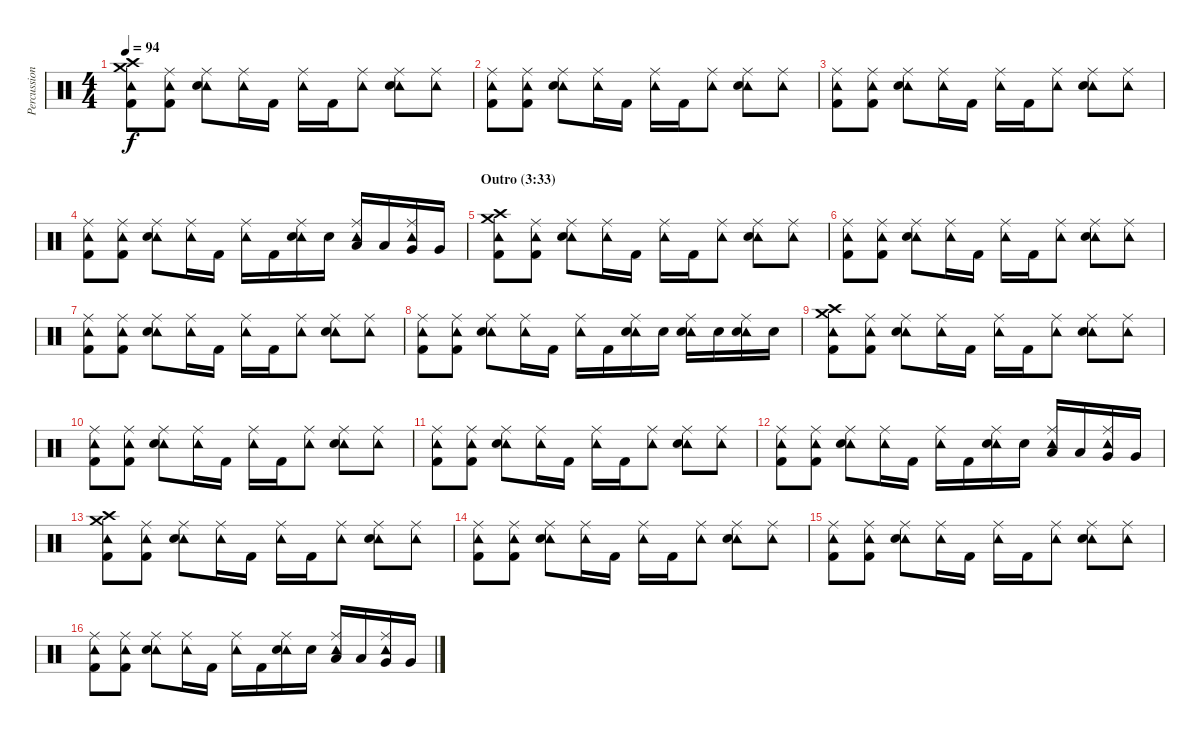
\track ("Percussion" "Percussion") {instrument percussion}
\staff {score}
\articulation defaults
\ts (4 4)
\tempo 94
\clef neutral
\ks c
("Crash high (hit)" "Crash medium (hit)" "Tambourine (hit)" "Kick (hit) 2").8{dy f} ("Ride (middle)" "Tambourine (hit)" "Kick (hit) 2").8 ("Ride (middle)" "Tambourine (hit)" "Snare (hit) 2").8 ("Ride (middle)" "Tambourine (hit)").16 "Kick (hit) 2".16 ("Ride (middle)" "Tambourine (hit)").16 "Kick (hit) 2".16 ("Ride (middle)" "Tambourine (hit)").8 ("Ride (middle)" "Tambourine (hit)" "Snare (hit) 2").8 ("Ride (middle)" "Tambourine (hit)").8 |
("Ride (middle)" "Tambourine (hit)" "Kick (hit) 2").8 ("Ride (middle)" "Tambourine (hit)" "Kick (hit) 2").8 ("Ride (middle)" "Tambourine (hit)" "Snare (hit) 2").8 ("Ride (middle)" "Tambourine (hit)").16 "Kick (hit) 2".16 ("Ride (middle)" "Tambourine (hit)").16 "Kick (hit) 2".16 ("Ride (middle)" "Tambourine (hit)").8 ("Ride (middle)" "Tambourine (hit)" "Snare (hit) 2").8 ("Ride (middle)" "Tambourine (hit)").8 |
("Ride (middle)" "Tambourine (hit)" "Kick (hit) 2").8 ("Ride (middle)" "Tambourine (hit)" "Kick (hit) 2").8 ("Ride (middle)" "Tambourine (hit)" "Snare (hit) 2").8 ("Ride (middle)" "Tambourine (hit)").16 "Kick (hit) 2".16 ("Ride (middle)" "Tambourine (hit)").16 "Kick (hit) 2".16 ("Ride (middle)" "Tambourine (hit)").8 ("Ride (middle)" "Tambourine (hit)" "Snare (hit) 2").8 ("Ride (middle)" "Tambourine (hit)").8 |
("Ride (middle)" "Tambourine (hit)" "Kick (hit) 2").8 ("Ride (middle)" "Tambourine (hit)" "Kick (hit) 2").8 ("Ride (middle)" "Tambourine (hit)" "Snare (hit) 2").8 ("Ride (middle)" "Tambourine (hit)").16 "Kick (hit) 2".16 ("Ride (middle)" "Tambourine (hit)").16 "Kick (hit) 2".16 ("Ride (middle)" "Tambourine (hit)" "Snare (hit) 2").16 "Snare (hit) 2".16 ("Ride (middle)" "Tambourine (hit)" "Low Tom (hit)").16 "Low Tom (hit)".16 ("Ride (middle)" "Tambourine (hit)" "Very Low Tom (hit)").16 "Very Low Tom (hit)".16 |
\section ("" "Outro (3:33)")
("Crash high (hit)" "Crash medium (hit)" "Tambourine (hit)" "Kick (hit) 2").8 ("Ride (middle)" "Tambourine (hit)" "Kick (hit) 2").8 ("Ride (middle)" "Tambourine (hit)" "Snare (hit) 2").8 ("Ride (middle)" "Tambourine (hit)").16 "Kick (hit) 2".16 ("Ride (middle)" "Tambourine (hit)").16 "Kick (hit) 2".16 ("Ride (middle)" "Tambourine (hit)").8 ("Ride (middle)" "Tambourine (hit)" "Snare (hit) 2").8 ("Ride (middle)" "Tambourine (hit)").8 |
("Ride (middle)" "Tambourine (hit)" "Kick (hit) 2").8 ("Ride (middle)" "Tambourine (hit)" "Kick (hit) 2").8 ("Ride (middle)" "Tambourine (hit)" "Snare (hit) 2").8 ("Ride (middle)" "Tambourine (hit)").16 "Kick (hit) 2".16 ("Ride (middle)" "Tambourine (hit)").16 "Kick (hit) 2".16 ("Ride (middle)" "Tambourine (hit)").8 ("Ride (middle)" "Tambourine (hit)" "Snare (hit) 2").8 ("Ride (middle)" "Tambourine (hit)").8 |
("Ride (middle)" "Tambourine (hit)" "Kick (hit) 2").8 ("Ride (middle)" "Tambourine (hit)" "Kick (hit) 2").8 ("Ride (middle)" "Tambourine (hit)" "Snare (hit) 2").8 ("Ride (middle)" "Tambourine (hit)").16 "Kick (hit) 2".16 ("Ride (middle)" "Tambourine (hit)").16 "Kick (hit) 2".16 ("Ride (middle)" "Tambourine (hit)").8 ("Ride (middle)" "Tambourine (hit)" "Snare (hit) 2").8 ("Ride (middle)" "Tambourine (hit)").8 |
("Ride (middle)" "Tambourine (hit)" "Kick (hit) 2").8 ("Ride (middle)" "Tambourine (hit)" "Kick (hit) 2").8 ("Ride (middle)" "Tambourine (hit)" "Snare (hit) 2").8 ("Ride (middle)" "Tambourine (hit)").16 "Kick (hit) 2".16 ("Ride (middle)" "Tambourine (hit)").16 "Kick (hit) 2".16 ("Ride (middle)" "Tambourine (hit)" "Snare (hit) 2").16 "Snare (hit) 2".16 ("Ride (middle)" "Tambourine (hit)" "Snare (hit) 2").16 "Snare (hit) 2".16 ("Ride (middle)" "Tambourine (hit)" "Snare (hit) 2").16 "Snare (hit) 2".16 |
("Crash high (hit)" "Crash medium (hit)" "Tambourine (hit)" "Kick (hit) 2").8 ("Ride (middle)" "Tambourine (hit)" "Kick (hit) 2").8 ("Ride (middle)" "Tambourine (hit)" "Snare (hit) 2").8 ("Ride (middle)" "Tambourine (hit)").16 "Kick (hit) 2".16 ("Ride (middle)" "Tambourine (hit)").16 "Kick (hit) 2".16 ("Ride (middle)" "Tambourine (hit)").8 ("Ride (middle)" "Tambourine (hit)" "Snare (hit) 2").8 ("Ride (middle)" "Tambourine (hit)").8 |
("Ride (middle)" "Tambourine (hit)" "Kick (hit) 2").8 ("Ride (middle)" "Tambourine (hit)" "Kick (hit) 2").8 ("Ride (middle)" "Tambourine (hit)" "Snare (hit) 2").8 ("Ride (middle)" "Tambourine (hit)").16 "Kick (hit) 2".16 ("Ride (middle)" "Tambourine (hit)").16 "Kick (hit) 2".16 ("Ride (middle)" "Tambourine (hit)").8 ("Ride (middle)" "Tambourine (hit)" "Snare (hit) 2").8 ("Ride (middle)" "Tambourine (hit)").8 |
("Ride (middle)" "Tambourine (hit)" "Kick (hit) 2").8 ("Ride (middle)" "Tambourine (hit)" "Kick (hit) 2").8 ("Ride (middle)" "Tambourine (hit)" "Snare (hit) 2").8 ("Ride (middle)" "Tambourine (hit)").16 "Kick (hit) 2".16 ("Ride (middle)" "Tambourine (hit)").16 "Kick (hit) 2".16 ("Ride (middle)" "Tambourine (hit)").8 ("Ride (middle)" "Tambourine (hit)" "Snare (hit) 2").8 ("Ride (middle)" "Tambourine (hit)").8 |
("Ride (middle)" "Tambourine (hit)" "Kick (hit) 2").8 ("Ride (middle)" "Tambourine (hit)" "Kick (hit) 2").8 ("Ride (middle)" "Tambourine (hit)" "Snare (hit) 2").8 ("Ride (middle)" "Tambourine (hit)").16 "Kick (hit) 2".16 ("Ride (middle)" "Tambourine (hit)").16 "Kick (hit) 2".16 ("Ride (middle)" "Tambourine (hit)" "Snare (hit) 2").16 "Snare (hit) 2".16 ("Ride (middle)" "Tambourine (hit)" "Low Tom (hit)").16 "Low Tom (hit)".16 ("Ride (middle)" "Tambourine (hit)" "Very Low Tom (hit)").16 "Very Low Tom (hit)".16 |
("Crash high (hit)" "Crash medium (hit)" "Tambourine (hit)" "Kick (hit) 2").8 ("Ride (middle)" "Tambourine (hit)" "Kick (hit) 2").8 ("Ride (middle)" "Tambourine (hit)" "Snare (hit) 2").8 ("Ride (middle)" "Tambourine (hit)").16 "Kick (hit) 2".16 ("Ride (middle)" "Tambourine (hit)").16 "Kick (hit) 2".16 ("Ride (middle)" "Tambourine (hit)").8 ("Ride (middle)" "Tambourine (hit)" "Snare (hit) 2").8 ("Ride (middle)" "Tambourine (hit)").8 |
("Ride (middle)" "Tambourine (hit)" "Kick (hit) 2").8 ("Ride (middle)" "Tambourine (hit)" "Kick (hit) 2").8 ("Ride (middle)" "Tambourine (hit)" "Snare (hit) 2").8 ("Ride (middle)" "Tambourine (hit)").16 "Kick (hit) 2".16 ("Ride (middle)" "Tambourine (hit)").16 "Kick (hit) 2".16 ("Ride (middle)" "Tambourine (hit)").8 ("Ride (middle)" "Tambourine (hit)" "Snare (hit) 2").8 ("Ride (middle)" "Tambourine (hit)").8 |
("Ride (middle)" "Tambourine (hit)" "Kick (hit) 2").8 ("Ride (middle)" "Tambourine (hit)" "Kick (hit) 2").8 ("Ride (middle)" "Tambourine (hit)" "Snare (hit) 2").8 ("Ride (middle)" "Tambourine (hit)").16 "Kick (hit) 2".16 ("Ride (middle)" "Tambourine (hit)").16 "Kick (hit) 2".16 ("Ride (middle)" "Tambourine (hit)").8 ("Ride (middle)" "Tambourine (hit)" "Snare (hit) 2").8 ("Ride (middle)" "Tambourine (hit)").8 |
("Ride (middle)" "Tambourine (hit)" "Kick (hit) 2").8 ("Ride (middle)" "Tambourine (hit)" "Kick (hit) 2").8 ("Ride (middle)" "Tambourine (hit)" "Snare (hit) 2").8 ("Ride (middle)" "Tambourine (hit)").16 "Kick (hit) 2".16 ("Ride (middle)" "Tambourine (hit)").16 "Kick (hit) 2".16 ("Ride (middle)" "Tambourine (hit)" "Snare (hit) 2").16 "Snare (hit) 2".16 ("Ride (middle)" "Tambourine (hit)" "Low Tom (hit)").16 "Low Tom (hit)".16 ("Ride (middle)" "Tambourine (hit)" "Very Low Tom (hit)").16 "Very Low Tom (hit)".16
